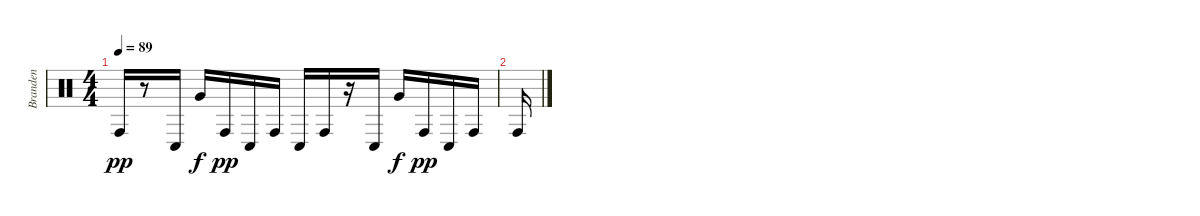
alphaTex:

\track ("Branden" "Branden") {instrument percussion}
\staff {score}
\articulation defaults
\ts (4 4)
\tempo 89
\clef neutral
\ks c "Conga high (hit)".16{dy pp}
r.8 "Conga low (hit)".16 "Very Low Tom (hit)".16{dy f} "Conga high (hit)".16{dy pp} "Conga low (hit)".16 "Conga high (hit)".16 "Conga low (hit)".16 "Conga high (hit)".16 r.16 "Conga low (hit)".16 "Very Low Tom (hit)".16{dy f} "Conga high (hit)".16{dy pp} "Conga low (hit)".16 "Conga high (hit)".16 |
"Conga high (hit)".16
